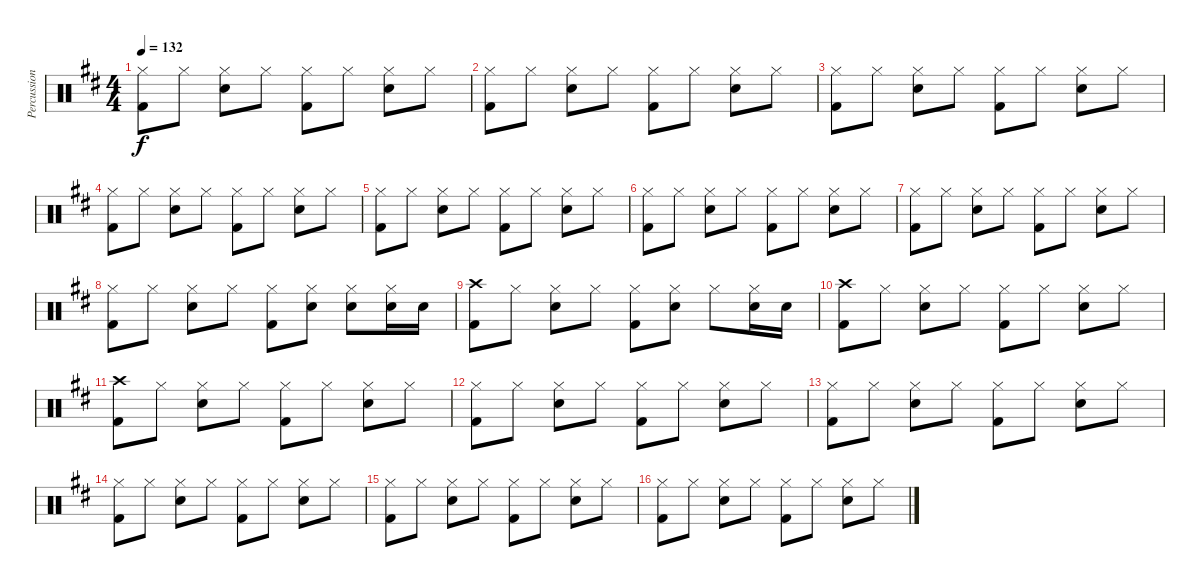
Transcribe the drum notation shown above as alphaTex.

\track ("Percussion" "Percussion") {instrument percussion}
\staff {score}
\articulation defaults
\ts (4 4)
\tempo 132
\clef neutral
\ks d
("Hi-Hat (closed)" "Kick (hit) 2").8{dy f} "Hi-Hat (closed)".8 ("Hi-Hat (closed)" "Electric Snare (hit)").8 "Hi-Hat (closed)".8 ("Hi-Hat (closed)" "Kick (hit) 2").8 "Hi-Hat (closed)".8 ("Hi-Hat (closed)" "Electric Snare (hit)").8 "Hi-Hat (closed)".8 |
("Hi-Hat (closed)" "Kick (hit) 2").8 "Hi-Hat (closed)".8 ("Hi-Hat (closed)" "Electric Snare (hit)").8 "Hi-Hat (closed)".8 ("Hi-Hat (closed)" "Kick (hit) 2").8 "Hi-Hat (closed)".8 ("Hi-Hat (closed)" "Electric Snare (hit)").8 "Hi-Hat (closed)".8 |
("Hi-Hat (closed)" "Kick (hit) 2").8 "Hi-Hat (closed)".8 ("Hi-Hat (closed)" "Electric Snare (hit)").8 "Hi-Hat (closed)".8 ("Hi-Hat (closed)" "Kick (hit) 2").8 "Hi-Hat (closed)".8 ("Hi-Hat (closed)" "Electric Snare (hit)").8 "Hi-Hat (closed)".8 |
("Hi-Hat (closed)" "Kick (hit) 2").8 "Hi-Hat (closed)".8 ("Hi-Hat (closed)" "Electric Snare (hit)").8 "Hi-Hat (closed)".8 ("Hi-Hat (closed)" "Kick (hit) 2").8 "Hi-Hat (closed)".8 ("Hi-Hat (closed)" "Electric Snare (hit)").8 "Hi-Hat (closed)".8 |
("Hi-Hat (closed)" "Kick (hit) 2").8 "Hi-Hat (closed)".8 ("Hi-Hat (closed)" "Electric Snare (hit)").8 "Hi-Hat (closed)".8 ("Hi-Hat (closed)" "Kick (hit) 2").8 "Hi-Hat (closed)".8 ("Hi-Hat (closed)" "Electric Snare (hit)").8 "Hi-Hat (closed)".8 |
("Hi-Hat (closed)" "Kick (hit) 2").8 "Hi-Hat (closed)".8 ("Hi-Hat (closed)" "Electric Snare (hit)").8 "Hi-Hat (closed)".8 ("Hi-Hat (closed)" "Kick (hit) 2").8 "Hi-Hat (closed)".8 ("Hi-Hat (closed)" "Electric Snare (hit)").8 "Hi-Hat (closed)".8 |
("Hi-Hat (closed)" "Kick (hit) 2").8 "Hi-Hat (closed)".8 ("Hi-Hat (closed)" "Electric Snare (hit)").8 "Hi-Hat (closed)".8 ("Hi-Hat (closed)" "Kick (hit) 2").8 "Hi-Hat (closed)".8 ("Hi-Hat (closed)" "Electric Snare (hit)").8 "Hi-Hat (closed)".8 |
("Hi-Hat (closed)" "Kick (hit) 2").8 "Hi-Hat (closed)".8 ("Hi-Hat (closed)" "Electric Snare (hit)").8 "Hi-Hat (closed)".8 ("Hi-Hat (closed)" "Kick (hit) 2").8 ("Hi-Hat (closed)" "Electric Snare (hit)").8 ("Hi-Hat (closed)" "Electric Snare (hit)").8 ("Hi-Hat (closed)" "Electric Snare (hit)").16 "Electric Snare (hit)".16 |
("Crash high (hit)" "Kick (hit) 2").8 "Hi-Hat (closed)".8 ("Hi-Hat (closed)" "Electric Snare (hit)").8 "Hi-Hat (closed)".8 ("Hi-Hat (closed)" "Kick (hit) 2").8 ("Hi-Hat (closed)" "Electric Snare (hit)").8 "Hi-Hat (closed)".8 ("Hi-Hat (closed)" "Electric Snare (hit)").16 "Electric Snare (hit)".16 |
("Crash high (hit)" "Kick (hit) 2").8 "Hi-Hat (closed)".8 ("Hi-Hat (closed)" "Electric Snare (hit)").8 "Hi-Hat (closed)".8 ("Hi-Hat (closed)" "Kick (hit) 2").8 "Hi-Hat (closed)".8 ("Hi-Hat (closed)" "Electric Snare (hit)").8 "Hi-Hat (closed)".8 |
("Crash high (hit)" "Kick (hit) 2").8 "Hi-Hat (closed)".8 ("Hi-Hat (closed)" "Electric Snare (hit)").8 "Hi-Hat (closed)".8 ("Hi-Hat (closed)" "Kick (hit) 2").8 "Hi-Hat (closed)".8 ("Hi-Hat (closed)" "Electric Snare (hit)").8 "Hi-Hat (closed)".8 |
("Hi-Hat (closed)" "Kick (hit) 2").8 "Hi-Hat (closed)".8 ("Hi-Hat (closed)" "Electric Snare (hit)").8 "Hi-Hat (closed)".8 ("Hi-Hat (closed)" "Kick (hit) 2").8 "Hi-Hat (closed)".8 ("Hi-Hat (closed)" "Electric Snare (hit)").8 "Hi-Hat (closed)".8 |
("Hi-Hat (closed)" "Kick (hit) 2").8 "Hi-Hat (closed)".8 ("Hi-Hat (closed)" "Electric Snare (hit)").8 "Hi-Hat (closed)".8 ("Hi-Hat (closed)" "Kick (hit) 2").8 "Hi-Hat (closed)".8 ("Hi-Hat (closed)" "Electric Snare (hit)").8 "Hi-Hat (closed)".8 |
("Hi-Hat (closed)" "Kick (hit) 2").8 "Hi-Hat (closed)".8 ("Hi-Hat (closed)" "Electric Snare (hit)").8 "Hi-Hat (closed)".8 ("Hi-Hat (closed)" "Kick (hit) 2").8 "Hi-Hat (closed)".8 ("Hi-Hat (closed)" "Electric Snare (hit)").8 "Hi-Hat (closed)".8 |
("Hi-Hat (closed)" "Kick (hit) 2").8 "Hi-Hat (closed)".8 ("Hi-Hat (closed)" "Electric Snare (hit)").8 "Hi-Hat (closed)".8 ("Hi-Hat (closed)" "Kick (hit) 2").8 "Hi-Hat (closed)".8 ("Hi-Hat (closed)" "Electric Snare (hit)").8 "Hi-Hat (closed)".8 |
("Hi-Hat (closed)" "Kick (hit) 2").8 "Hi-Hat (closed)".8 ("Hi-Hat (closed)" "Electric Snare (hit)").8 "Hi-Hat (closed)".8 ("Hi-Hat (closed)" "Kick (hit) 2").8 "Hi-Hat (closed)".8 ("Hi-Hat (closed)" "Electric Snare (hit)").8 "Hi-Hat (closed)".8
